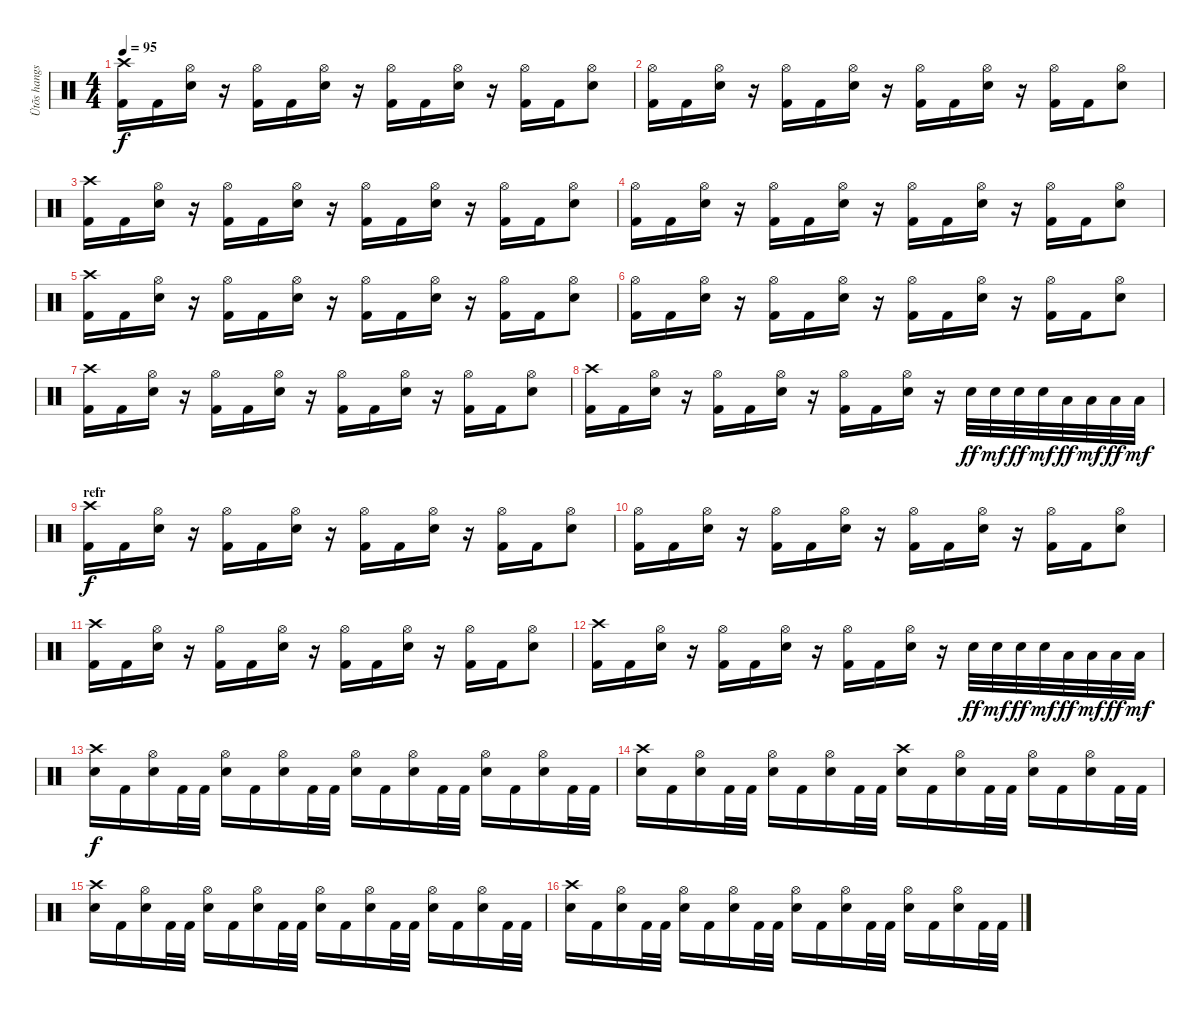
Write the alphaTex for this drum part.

\track ("Ütõs hangszer" "Ütõs hangs") {instrument percussion}
\staff {score}
\articulation defaults
\ts (4 4)
\tempo 95
\clef neutral
\ks c
("Crash high (hit)" "Kick (hit) 2").16{dy f} "Kick (hit) 2".16 ("Hi-Hat (open)" "Snare (hit) 2").16 r.16 ("Hi-Hat (open)" "Kick (hit) 2").16 "Kick (hit) 2".16 ("Hi-Hat (open)" "Snare (hit) 2").16 r.16 ("Hi-Hat (open)" "Kick (hit) 2").16 "Kick (hit) 2".16 ("Hi-Hat (open)" "Snare (hit) 2").16 r.16 ("Hi-Hat (open)" "Kick (hit) 2").16 "Kick (hit) 2".16 ("Hi-Hat (open)" "Snare (hit) 2").8 |
("Hi-Hat (open)" "Kick (hit) 2").16 "Kick (hit) 2".16 ("Hi-Hat (open)" "Snare (hit) 2").16 r.16 ("Hi-Hat (open)" "Kick (hit) 2").16 "Kick (hit) 2".16 ("Hi-Hat (open)" "Snare (hit) 2").16 r.16 ("Hi-Hat (open)" "Kick (hit) 2").16 "Kick (hit) 2".16 ("Hi-Hat (open)" "Snare (hit) 2").16 r.16 ("Hi-Hat (open)" "Kick (hit) 2").16 "Kick (hit) 2".16 ("Hi-Hat (open)" "Snare (hit) 2").8 |
("Crash high (hit)" "Kick (hit) 2").16 "Kick (hit) 2".16 ("Hi-Hat (open)" "Snare (hit) 2").16 r.16 ("Hi-Hat (open)" "Kick (hit) 2").16 "Kick (hit) 2".16 ("Hi-Hat (open)" "Snare (hit) 2").16 r.16 ("Hi-Hat (open)" "Kick (hit) 2").16 "Kick (hit) 2".16 ("Hi-Hat (open)" "Snare (hit) 2").16 r.16 ("Hi-Hat (open)" "Kick (hit) 2").16 "Kick (hit) 2".16 ("Hi-Hat (open)" "Snare (hit) 2").8 |
("Hi-Hat (open)" "Kick (hit) 2").16 "Kick (hit) 2".16 ("Hi-Hat (open)" "Snare (hit) 2").16 r.16 ("Hi-Hat (open)" "Kick (hit) 2").16 "Kick (hit) 2".16 ("Hi-Hat (open)" "Snare (hit) 2").16 r.16 ("Hi-Hat (open)" "Kick (hit) 2").16 "Kick (hit) 2".16 ("Hi-Hat (open)" "Snare (hit) 2").16 r.16 ("Hi-Hat (open)" "Kick (hit) 2").16 "Kick (hit) 2".16 ("Hi-Hat (open)" "Snare (hit) 2").8 |
("Crash high (hit)" "Kick (hit) 2").16 "Kick (hit) 2".16 ("Hi-Hat (open)" "Snare (hit) 2").16 r.16 ("Hi-Hat (open)" "Kick (hit) 2").16 "Kick (hit) 2".16 ("Hi-Hat (open)" "Snare (hit) 2").16 r.16 ("Hi-Hat (open)" "Kick (hit) 2").16 "Kick (hit) 2".16 ("Hi-Hat (open)" "Snare (hit) 2").16 r.16 ("Hi-Hat (open)" "Kick (hit) 2").16 "Kick (hit) 2".16 ("Hi-Hat (open)" "Snare (hit) 2").8 |
("Hi-Hat (open)" "Kick (hit) 2").16 "Kick (hit) 2".16 ("Hi-Hat (open)" "Snare (hit) 2").16 r.16 ("Hi-Hat (open)" "Kick (hit) 2").16 "Kick (hit) 2".16 ("Hi-Hat (open)" "Snare (hit) 2").16 r.16 ("Hi-Hat (open)" "Kick (hit) 2").16 "Kick (hit) 2".16 ("Hi-Hat (open)" "Snare (hit) 2").16 r.16 ("Hi-Hat (open)" "Kick (hit) 2").16 "Kick (hit) 2".16 ("Hi-Hat (open)" "Snare (hit) 2").8 |
("Crash high (hit)" "Kick (hit) 2").16 "Kick (hit) 2".16 ("Hi-Hat (open)" "Snare (hit) 2").16 r.16 ("Hi-Hat (open)" "Kick (hit) 2").16 "Kick (hit) 2".16 ("Hi-Hat (open)" "Snare (hit) 2").16 r.16 ("Hi-Hat (open)" "Kick (hit) 2").16 "Kick (hit) 2".16 ("Hi-Hat (open)" "Snare (hit) 2").16 r.16 ("Hi-Hat (open)" "Kick (hit) 2").16 "Kick (hit) 2".16 ("Hi-Hat (open)" "Snare (hit) 2").8 |
("Crash high (hit)" "Kick (hit) 2").16 "Kick (hit) 2".16 ("Hi-Hat (open)" "Snare (hit) 2").16 r.16 ("Hi-Hat (open)" "Kick (hit) 2").16 "Kick (hit) 2".16 ("Hi-Hat (open)" "Snare (hit) 2").16 r.16 ("Hi-Hat (open)" "Kick (hit) 2").16 "Kick (hit) 2".16 ("Hi-Hat (open)" "Snare (hit) 2").16 r.16 "Snare (hit) 2".32{dy ff} "Snare (hit) 2".32{dy mf} "Snare (hit) 2".32{dy ff} "Snare (hit) 2".32{dy mf} "Low Tom (hit)".32{dy ff} "Low Tom (hit)".32{dy mf} "Low Tom (hit)".32{dy ff} "Low Tom (hit)".32{dy mf} |
\section ("" "refr")
("Crash high (hit)" "Kick (hit) 2").16{dy f} "Kick (hit) 2".16 ("Hi-Hat (open)" "Snare (hit) 2").16 r.16 ("Hi-Hat (open)" "Kick (hit) 2").16 "Kick (hit) 2".16 ("Hi-Hat (open)" "Snare (hit) 2").16 r.16 ("Hi-Hat (open)" "Kick (hit) 2").16 "Kick (hit) 2".16 ("Hi-Hat (open)" "Snare (hit) 2").16 r.16 ("Hi-Hat (open)" "Kick (hit) 2").16 "Kick (hit) 2".16 ("Hi-Hat (open)" "Snare (hit) 2").8 |
("Hi-Hat (open)" "Kick (hit) 2").16 "Kick (hit) 2".16 ("Hi-Hat (open)" "Snare (hit) 2").16 r.16 ("Hi-Hat (open)" "Kick (hit) 2").16 "Kick (hit) 2".16 ("Hi-Hat (open)" "Snare (hit) 2").16 r.16 ("Hi-Hat (open)" "Kick (hit) 2").16 "Kick (hit) 2".16 ("Hi-Hat (open)" "Snare (hit) 2").16 r.16 ("Hi-Hat (open)" "Kick (hit) 2").16 "Kick (hit) 2".16 ("Hi-Hat (open)" "Snare (hit) 2").8 |
("Crash high (hit)" "Kick (hit) 2").16 "Kick (hit) 2".16 ("Hi-Hat (open)" "Snare (hit) 2").16 r.16 ("Hi-Hat (open)" "Kick (hit) 2").16 "Kick (hit) 2".16 ("Hi-Hat (open)" "Snare (hit) 2").16 r.16 ("Hi-Hat (open)" "Kick (hit) 2").16 "Kick (hit) 2".16 ("Hi-Hat (open)" "Snare (hit) 2").16 r.16 ("Hi-Hat (open)" "Kick (hit) 2").16 "Kick (hit) 2".16 ("Hi-Hat (open)" "Snare (hit) 2").8 |
("Crash high (hit)" "Kick (hit) 2").16 "Kick (hit) 2".16 ("Hi-Hat (open)" "Snare (hit) 2").16 r.16 ("Hi-Hat (open)" "Kick (hit) 2").16 "Kick (hit) 2".16 ("Hi-Hat (open)" "Snare (hit) 2").16 r.16 ("Hi-Hat (open)" "Kick (hit) 2").16 "Kick (hit) 2".16 ("Hi-Hat (open)" "Snare (hit) 2").16 r.16 "Snare (hit) 2".32{dy ff} "Snare (hit) 2".32{dy mf} "Snare (hit) 2".32{dy ff} "Snare (hit) 2".32{dy mf} "Low Tom (hit)".32{dy ff} "Low Tom (hit)".32{dy mf} "Low Tom (hit)".32{dy ff} "Low Tom (hit)".32{dy mf} |
("Crash high (hit)" "Snare (hit) 2").16{dy f} "Kick (hit) 2".16 ("Hi-Hat (open)" "Snare (hit) 2").16 "Kick (hit) 2".32 "Kick (hit) 2".32 ("Hi-Hat (open)" "Snare (hit) 2").16 "Kick (hit) 2".16 ("Hi-Hat (open)" "Snare (hit) 2").16 "Kick (hit) 2".32 "Kick (hit) 2".32 ("Hi-Hat (open)" "Snare (hit) 2").16 "Kick (hit) 2".16 ("Hi-Hat (open)" "Snare (hit) 2").16 "Kick (hit) 2".32 "Kick (hit) 2".32 ("Hi-Hat (open)" "Snare (hit) 2").16 "Kick (hit) 2".16 ("Hi-Hat (open)" "Snare (hit) 2").16 "Kick (hit) 2".32 "Kick (hit) 2".32 |
("Crash high (hit)" "Snare (hit) 2").16 "Kick (hit) 2".16 ("Hi-Hat (open)" "Snare (hit) 2").16 "Kick (hit) 2".32 "Kick (hit) 2".32 ("Hi-Hat (open)" "Snare (hit) 2").16 "Kick (hit) 2".16 ("Hi-Hat (open)" "Snare (hit) 2").16 "Kick (hit) 2".32 "Kick (hit) 2".32 ("Crash high (hit)" "Snare (hit) 2").16 "Kick (hit) 2".16 ("Hi-Hat (open)" "Snare (hit) 2").16 "Kick (hit) 2".32 "Kick (hit) 2".32 ("Hi-Hat (open)" "Snare (hit) 2").16 "Kick (hit) 2".16 ("Hi-Hat (open)" "Snare (hit) 2").16 "Kick (hit) 2".32 "Kick (hit) 2".32 |
("Crash high (hit)" "Snare (hit) 2").16 "Kick (hit) 2".16 ("Hi-Hat (open)" "Snare (hit) 2").16 "Kick (hit) 2".32 "Kick (hit) 2".32 ("Hi-Hat (open)" "Snare (hit) 2").16 "Kick (hit) 2".16 ("Hi-Hat (open)" "Snare (hit) 2").16 "Kick (hit) 2".32 "Kick (hit) 2".32 ("Hi-Hat (open)" "Snare (hit) 2").16 "Kick (hit) 2".16 ("Hi-Hat (open)" "Snare (hit) 2").16 "Kick (hit) 2".32 "Kick (hit) 2".32 ("Hi-Hat (open)" "Snare (hit) 2").16 "Kick (hit) 2".16 ("Hi-Hat (open)" "Snare (hit) 2").16 "Kick (hit) 2".32 "Kick (hit) 2".32 |
("Crash high (hit)" "Snare (hit) 2").16 "Kick (hit) 2".16 ("Hi-Hat (open)" "Snare (hit) 2").16 "Kick (hit) 2".32 "Kick (hit) 2".32 ("Hi-Hat (open)" "Snare (hit) 2").16 "Kick (hit) 2".16 ("Hi-Hat (open)" "Snare (hit) 2").16 "Kick (hit) 2".32 "Kick (hit) 2".32 ("Hi-Hat (open)" "Snare (hit) 2").16 "Kick (hit) 2".16 ("Hi-Hat (open)" "Snare (hit) 2").16 "Kick (hit) 2".32 "Kick (hit) 2".32 ("Hi-Hat (open)" "Snare (hit) 2").16 "Kick (hit) 2".16 ("Hi-Hat (open)" "Snare (hit) 2").16 "Kick (hit) 2".32 "Kick (hit) 2".32
